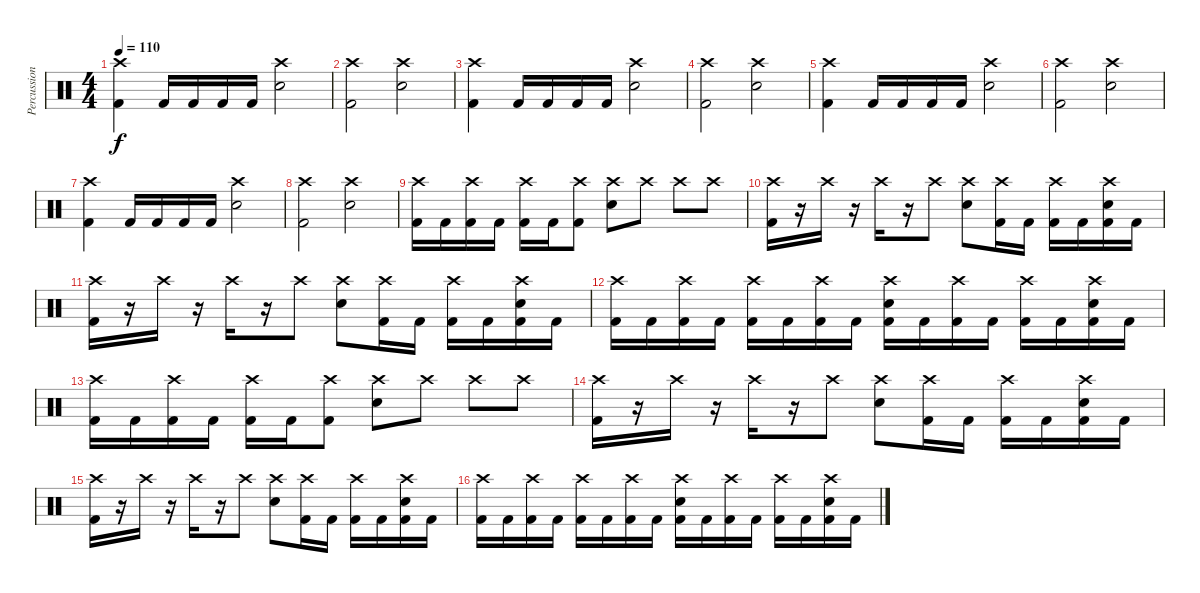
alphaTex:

\track ("Percussion" "Percussion") {instrument percussion}
\staff {score}
\articulation defaults
\ts (4 4)
\tempo 110
\clef neutral
\ks c
("Crash high (hit)" "Kick (hit) 2").4{dy f} "Kick (hit) 2".16 "Kick (hit) 2".16 "Kick (hit) 2".16 "Kick (hit) 2".16 ("Crash high (hit)" "Electric Snare (hit)").2 |
("Crash high (hit)" "Kick (hit) 2").2 ("Crash high (hit)" "Electric Snare (hit)").2 |
("Crash high (hit)" "Kick (hit) 2").4 "Kick (hit) 2".16 "Kick (hit) 2".16 "Kick (hit) 2".16 "Kick (hit) 2".16 ("Crash high (hit)" "Electric Snare (hit)").2 |
("Crash high (hit)" "Kick (hit) 2").2 ("Crash high (hit)" "Electric Snare (hit)").2 |
("Crash high (hit)" "Kick (hit) 2").4 "Kick (hit) 2".16 "Kick (hit) 2".16 "Kick (hit) 2".16 "Kick (hit) 2".16 ("Crash high (hit)" "Electric Snare (hit)").2 |
("Crash high (hit)" "Kick (hit) 2").2 ("Crash high (hit)" "Electric Snare (hit)").2 |
("Crash high (hit)" "Kick (hit) 2").4 "Kick (hit) 2".16 "Kick (hit) 2".16 "Kick (hit) 2".16 "Kick (hit) 2".16 ("Crash high (hit)" "Electric Snare (hit)").2 |
("Crash high (hit)" "Kick (hit) 2").2 ("Crash high (hit)" "Electric Snare (hit)").2 |
("Crash high (hit)" "Kick (hit) 2").16 "Kick (hit) 2".16 ("Crash high (hit)" "Kick (hit) 2").16 "Kick (hit) 2".16 ("Crash high (hit)" "Kick (hit) 2").16 "Kick (hit) 2".16 ("Crash high (hit)" "Kick (hit) 2").8 ("Crash high (hit)" "Electric Snare (hit)").8 "Crash high (hit)".8 "Crash high (hit)".8 "Crash high (hit)".8 |
("Crash high (hit)" "Kick (hit) 2").16 r.16 "Crash high (hit)".16 r.16 "Crash high (hit)".16 r.16 "Crash high (hit)".8 ("Crash high (hit)" "Electric Snare (hit)").8 ("Crash high (hit)" "Kick (hit) 2").16 "Kick (hit) 2".16 ("Crash high (hit)" "Kick (hit) 2").16 "Kick (hit) 2".16 ("Crash high (hit)" "Electric Snare (hit)" "Kick (hit) 2").16 "Kick (hit) 2".16 |
("Crash high (hit)" "Kick (hit) 2").16 r.16 "Crash high (hit)".16 r.16 "Crash high (hit)".16 r.16 "Crash high (hit)".8 ("Crash high (hit)" "Electric Snare (hit)").8 ("Crash high (hit)" "Kick (hit) 2").16 "Kick (hit) 2".16 ("Crash high (hit)" "Kick (hit) 2").16 "Kick (hit) 2".16 ("Crash high (hit)" "Electric Snare (hit)" "Kick (hit) 2").16 "Kick (hit) 2".16 |
("Crash high (hit)" "Kick (hit) 2").16 "Kick (hit) 2".16 ("Crash high (hit)" "Kick (hit) 2").16 "Kick (hit) 2".16 ("Crash high (hit)" "Kick (hit) 2").16 "Kick (hit) 2".16 ("Crash high (hit)" "Kick (hit) 2").16 "Kick (hit) 2".16 ("Crash high (hit)" "Electric Snare (hit)" "Kick (hit) 2").16 "Kick (hit) 2".16 ("Crash high (hit)" "Kick (hit) 2").16 "Kick (hit) 2".16 ("Crash high (hit)" "Kick (hit) 2").16 "Kick (hit) 2".16 ("Crash high (hit)" "Electric Snare (hit)" "Kick (hit) 2").16 "Kick (hit) 2".16 |
("Crash high (hit)" "Kick (hit) 2").16 "Kick (hit) 2".16 ("Crash high (hit)" "Kick (hit) 2").16 "Kick (hit) 2".16 ("Crash high (hit)" "Kick (hit) 2").16 "Kick (hit) 2".16 ("Crash high (hit)" "Kick (hit) 2").8 ("Crash high (hit)" "Electric Snare (hit)").8 "Crash high (hit)".8 "Crash high (hit)".8 "Crash high (hit)".8 |
("Crash high (hit)" "Kick (hit) 2").16 r.16 "Crash high (hit)".16 r.16 "Crash high (hit)".16 r.16 "Crash high (hit)".8 ("Crash high (hit)" "Electric Snare (hit)").8 ("Crash high (hit)" "Kick (hit) 2").16 "Kick (hit) 2".16 ("Crash high (hit)" "Kick (hit) 2").16 "Kick (hit) 2".16 ("Crash high (hit)" "Electric Snare (hit)" "Kick (hit) 2").16 "Kick (hit) 2".16 |
("Crash high (hit)" "Kick (hit) 2").16 r.16 "Crash high (hit)".16 r.16 "Crash high (hit)".16 r.16 "Crash high (hit)".8 ("Crash high (hit)" "Electric Snare (hit)").8 ("Crash high (hit)" "Kick (hit) 2").16 "Kick (hit) 2".16 ("Crash high (hit)" "Kick (hit) 2").16 "Kick (hit) 2".16 ("Crash high (hit)" "Electric Snare (hit)" "Kick (hit) 2").16 "Kick (hit) 2".16 |
("Crash high (hit)" "Kick (hit) 2").16 "Kick (hit) 2".16 ("Crash high (hit)" "Kick (hit) 2").16 "Kick (hit) 2".16 ("Crash high (hit)" "Kick (hit) 2").16 "Kick (hit) 2".16 ("Crash high (hit)" "Kick (hit) 2").16 "Kick (hit) 2".16 ("Crash high (hit)" "Electric Snare (hit)" "Kick (hit) 2").16 "Kick (hit) 2".16 ("Crash high (hit)" "Kick (hit) 2").16 "Kick (hit) 2".16 ("Crash high (hit)" "Kick (hit) 2").16 "Kick (hit) 2".16 ("Crash high (hit)" "Electric Snare (hit)" "Kick (hit) 2").16 "Kick (hit) 2".16
